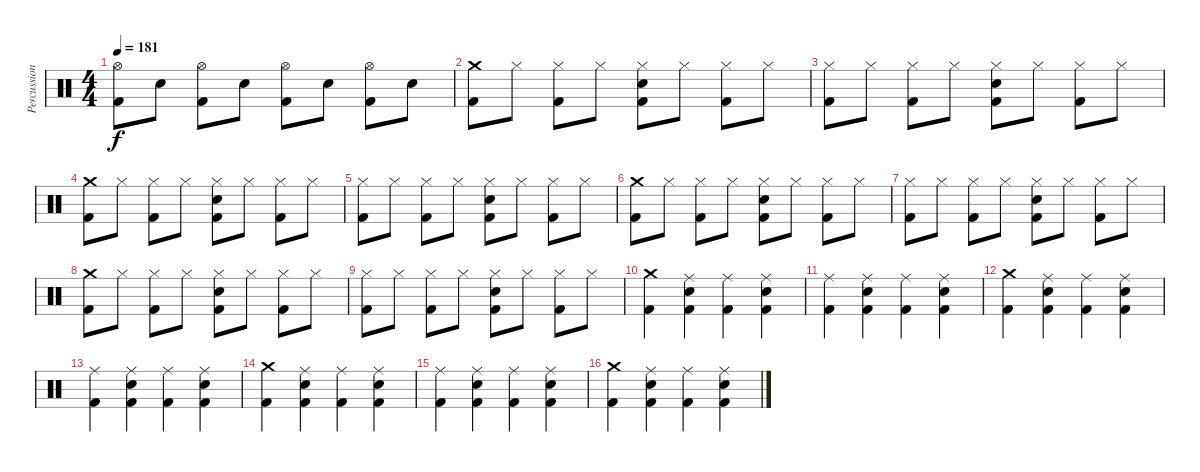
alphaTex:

\track ("Percussion" "Percussion") {instrument percussion}
\staff {score}
\articulation defaults
\ts (4 4)
\tempo 181
\clef neutral
\ks c
("Hi-Hat (open)" "Kick (hit) 2").8{dy f} "Electric Snare (hit)".8 ("Hi-Hat (open)" "Kick (hit) 2").8 "Electric Snare (hit)".8 ("Hi-Hat (open)" "Kick (hit) 2").8 "Electric Snare (hit)".8 ("Hi-Hat (open)" "Kick (hit) 2").8 "Electric Snare (hit)".8 |
("Crash medium (hit)" "Kick (hit) 2").8 "Hi-Hat (closed)".8 ("Hi-Hat (closed)" "Kick (hit) 2").8 "Hi-Hat (closed)".8 ("Hi-Hat (closed)" "Electric Snare (hit)" "Kick (hit) 2").8 "Hi-Hat (closed)".8 ("Hi-Hat (closed)" "Kick (hit) 2").8 "Hi-Hat (closed)".8 |
("Hi-Hat (closed)" "Kick (hit) 2").8 "Hi-Hat (closed)".8 ("Hi-Hat (closed)" "Kick (hit) 2").8 "Hi-Hat (closed)".8 ("Hi-Hat (closed)" "Electric Snare (hit)" "Kick (hit) 2").8 "Hi-Hat (closed)".8 ("Hi-Hat (closed)" "Kick (hit) 2").8 "Hi-Hat (closed)".8 |
("Crash medium (hit)" "Kick (hit) 2").8 "Hi-Hat (closed)".8 ("Hi-Hat (closed)" "Kick (hit) 2").8 "Hi-Hat (closed)".8 ("Hi-Hat (closed)" "Electric Snare (hit)" "Kick (hit) 2").8 "Hi-Hat (closed)".8 ("Hi-Hat (closed)" "Kick (hit) 2").8 "Hi-Hat (closed)".8 |
("Hi-Hat (closed)" "Kick (hit) 2").8 "Hi-Hat (closed)".8 ("Hi-Hat (closed)" "Kick (hit) 2").8 "Hi-Hat (closed)".8 ("Hi-Hat (closed)" "Electric Snare (hit)" "Kick (hit) 2").8 "Hi-Hat (closed)".8 ("Hi-Hat (closed)" "Kick (hit) 2").8 "Hi-Hat (closed)".8 |
("Crash medium (hit)" "Kick (hit) 2").8 "Hi-Hat (closed)".8 ("Hi-Hat (closed)" "Kick (hit) 2").8 "Hi-Hat (closed)".8 ("Hi-Hat (closed)" "Electric Snare (hit)" "Kick (hit) 2").8 "Hi-Hat (closed)".8 ("Hi-Hat (closed)" "Kick (hit) 2").8 "Hi-Hat (closed)".8 |
("Hi-Hat (closed)" "Kick (hit) 2").8 "Hi-Hat (closed)".8 ("Hi-Hat (closed)" "Kick (hit) 2").8 "Hi-Hat (closed)".8 ("Hi-Hat (closed)" "Electric Snare (hit)" "Kick (hit) 2").8 "Hi-Hat (closed)".8 ("Hi-Hat (closed)" "Kick (hit) 2").8 "Hi-Hat (closed)".8 |
("Crash medium (hit)" "Kick (hit) 2").8 "Hi-Hat (closed)".8 ("Hi-Hat (closed)" "Kick (hit) 2").8 "Hi-Hat (closed)".8 ("Hi-Hat (closed)" "Electric Snare (hit)" "Kick (hit) 2").8 "Hi-Hat (closed)".8 ("Hi-Hat (closed)" "Kick (hit) 2").8 "Hi-Hat (closed)".8 |
("Hi-Hat (closed)" "Kick (hit) 2").8 "Hi-Hat (closed)".8 ("Hi-Hat (closed)" "Kick (hit) 2").8 "Hi-Hat (closed)".8 ("Hi-Hat (closed)" "Electric Snare (hit)" "Kick (hit) 2").8 "Hi-Hat (closed)".8 ("Hi-Hat (closed)" "Kick (hit) 2").8 "Hi-Hat (closed)".8 |
("Crash medium (hit)" "Kick (hit) 2").4 ("Ride (middle)" "Electric Snare (hit)" "Kick (hit) 2").4 ("Ride (middle)" "Kick (hit) 2").4 ("Ride (middle)" "Electric Snare (hit)" "Kick (hit) 2").4 |
("Ride (middle)" "Kick (hit) 2").4 ("Ride (middle)" "Electric Snare (hit)" "Kick (hit) 2").4 ("Ride (middle)" "Kick (hit) 2").4 ("Ride (middle)" "Electric Snare (hit)" "Kick (hit) 2").4 |
("Crash medium (hit)" "Kick (hit) 2").4 ("Ride (middle)" "Electric Snare (hit)" "Kick (hit) 2").4 ("Ride (middle)" "Kick (hit) 2").4 ("Ride (middle)" "Electric Snare (hit)" "Kick (hit) 2").4 |
("Ride (middle)" "Kick (hit) 2").4 ("Ride (middle)" "Electric Snare (hit)" "Kick (hit) 2").4 ("Ride (middle)" "Kick (hit) 2").4 ("Ride (middle)" "Electric Snare (hit)" "Kick (hit) 2").4 |
("Crash medium (hit)" "Kick (hit) 2").4 ("Ride (middle)" "Electric Snare (hit)" "Kick (hit) 2").4 ("Ride (middle)" "Kick (hit) 2").4 ("Ride (middle)" "Electric Snare (hit)" "Kick (hit) 2").4 |
("Ride (middle)" "Kick (hit) 2").4 ("Ride (middle)" "Electric Snare (hit)" "Kick (hit) 2").4 ("Ride (middle)" "Kick (hit) 2").4 ("Ride (middle)" "Electric Snare (hit)" "Kick (hit) 2").4 |
("Crash medium (hit)" "Kick (hit) 2").4 ("Ride (middle)" "Electric Snare (hit)" "Kick (hit) 2").4 ("Ride (middle)" "Kick (hit) 2").4 ("Ride (middle)" "Electric Snare (hit)" "Kick (hit) 2").4
